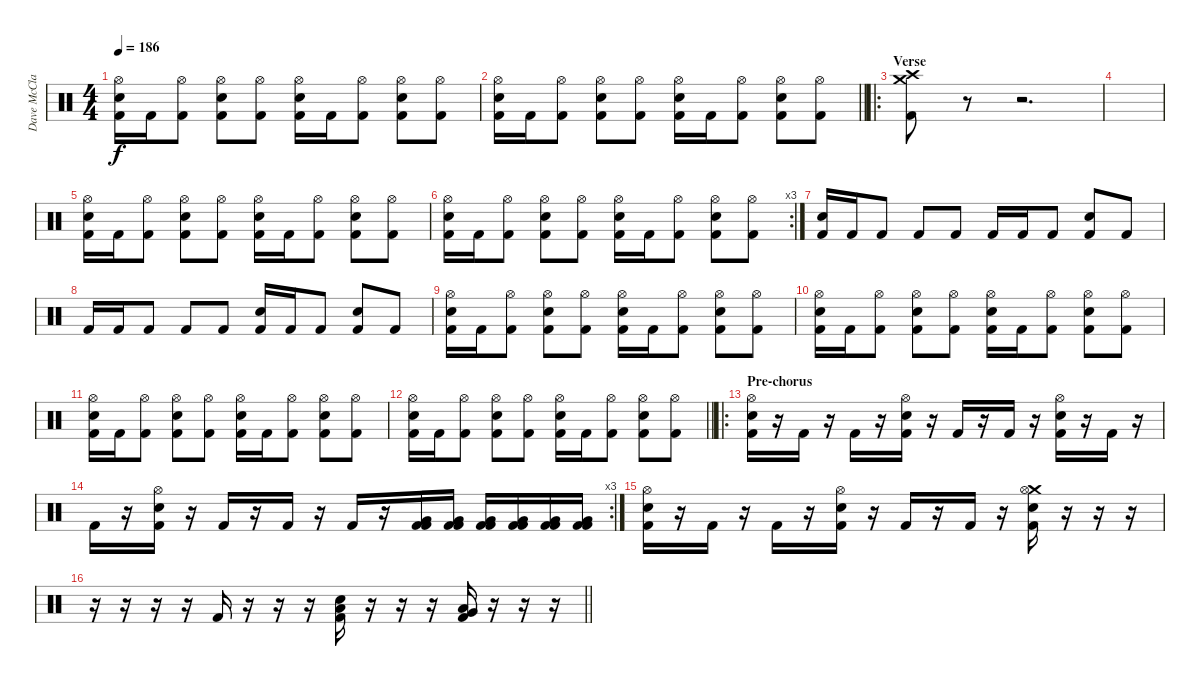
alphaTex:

\track ("Dave McClain" "Dave McCla") {instrument percussion}
\staff {score}
\articulation defaults
\ts (4 4)
\tempo 186
\clef neutral
\ks c
("Hi-Hat (open)" "Snare (hit) 2" "Kick (hit) 2").16{dy f} "Kick (hit) 2".16 ("Hi-Hat (open)" "Kick (hit) 2").8 ("Hi-Hat (open)" "Snare (hit) 2" "Kick (hit) 2").8 ("Hi-Hat (open)" "Kick (hit) 2").8 ("Hi-Hat (open)" "Snare (hit) 2" "Kick (hit) 2").16 "Kick (hit) 2".16 ("Hi-Hat (open)" "Kick (hit) 2").8 ("Hi-Hat (open)" "Snare (hit) 2" "Kick (hit) 2").8 ("Hi-Hat (open)" "Kick (hit) 2").8 |
\barLineRight lightlight
("Hi-Hat (open)" "Snare (hit) 2" "Kick (hit) 2").16 "Kick (hit) 2".16 ("Hi-Hat (open)" "Kick (hit) 2").8 ("Hi-Hat (open)" "Snare (hit) 2" "Kick (hit) 2").8 ("Hi-Hat (open)" "Kick (hit) 2").8 ("Hi-Hat (open)" "Snare (hit) 2" "Kick (hit) 2").16 "Kick (hit) 2".16 ("Hi-Hat (open)" "Kick (hit) 2").8 ("Hi-Hat (open)" "Snare (hit) 2" "Kick (hit) 2").8 ("Hi-Hat (open)" "Kick (hit) 2").8 |
\ro
\section ("" "Verse")
("Crash medium (hit)" "Crash high (hit)" "Kick (hit) 2").8 r.8 r.2{d} |
|
("Hi-Hat (open)" "Snare (hit) 2" "Kick (hit) 2").16 "Kick (hit) 2".16 ("Hi-Hat (open)" "Kick (hit) 2").8 ("Hi-Hat (open)" "Snare (hit) 2" "Kick (hit) 2").8 ("Hi-Hat (open)" "Kick (hit) 2").8 ("Hi-Hat (open)" "Snare (hit) 2" "Kick (hit) 2").16 "Kick (hit) 2".16 ("Hi-Hat (open)" "Kick (hit) 2").8 ("Hi-Hat (open)" "Snare (hit) 2" "Kick (hit) 2").8 ("Hi-Hat (open)" "Kick (hit) 2").8 |
\rc 3
("Hi-Hat (open)" "Snare (hit) 2" "Kick (hit) 2").16 "Kick (hit) 2".16 ("Hi-Hat (open)" "Kick (hit) 2").8 ("Hi-Hat (open)" "Snare (hit) 2" "Kick (hit) 2").8 ("Hi-Hat (open)" "Kick (hit) 2").8 ("Hi-Hat (open)" "Snare (hit) 2" "Kick (hit) 2").16 "Kick (hit) 2".16 ("Hi-Hat (open)" "Kick (hit) 2").8 ("Hi-Hat (open)" "Snare (hit) 2" "Kick (hit) 2").8 ("Hi-Hat (open)" "Kick (hit) 2").8 |
("Snare (hit) 2" "Kick (hit) 2").16 "Kick (hit) 2".16 "Kick (hit) 2".8 "Kick (hit) 2".8 "Kick (hit) 2".8 "Kick (hit) 2".16 "Kick (hit) 2".16 "Kick (hit) 2".8 ("Snare (hit) 2" "Kick (hit) 2").8 "Kick (hit) 2".8 |
"Kick (hit) 2".16 "Kick (hit) 2".16 "Kick (hit) 2".8 "Kick (hit) 2".8 "Kick (hit) 2".8 ("Snare (hit) 2" "Kick (hit) 2").16 "Kick (hit) 2".16 "Kick (hit) 2".8 ("Snare (hit) 2" "Kick (hit) 2").8 "Kick (hit) 2".8 |
("Hi-Hat (open)" "Snare (hit) 2" "Kick (hit) 2").16 "Kick (hit) 2".16 ("Hi-Hat (open)" "Kick (hit) 2").8 ("Hi-Hat (open)" "Snare (hit) 2" "Kick (hit) 2").8 ("Hi-Hat (open)" "Kick (hit) 2").8 ("Hi-Hat (open)" "Snare (hit) 2" "Kick (hit) 2").16 "Kick (hit) 2".16 ("Hi-Hat (open)" "Kick (hit) 2").8 ("Hi-Hat (open)" "Snare (hit) 2" "Kick (hit) 2").8 ("Hi-Hat (open)" "Kick (hit) 2").8 |
("Hi-Hat (open)" "Snare (hit) 2" "Kick (hit) 2").16 "Kick (hit) 2".16 ("Hi-Hat (open)" "Kick (hit) 2").8 ("Hi-Hat (open)" "Snare (hit) 2" "Kick (hit) 2").8 ("Hi-Hat (open)" "Kick (hit) 2").8 ("Hi-Hat (open)" "Snare (hit) 2" "Kick (hit) 2").16 "Kick (hit) 2".16 ("Hi-Hat (open)" "Kick (hit) 2").8 ("Hi-Hat (open)" "Snare (hit) 2" "Kick (hit) 2").8 ("Hi-Hat (open)" "Kick (hit) 2").8 |
("Hi-Hat (open)" "Snare (hit) 2" "Kick (hit) 2").16 "Kick (hit) 2".16 ("Hi-Hat (open)" "Kick (hit) 2").8 ("Hi-Hat (open)" "Snare (hit) 2" "Kick (hit) 2").8 ("Hi-Hat (open)" "Kick (hit) 2").8 ("Hi-Hat (open)" "Snare (hit) 2" "Kick (hit) 2").16 "Kick (hit) 2".16 ("Hi-Hat (open)" "Kick (hit) 2").8 ("Hi-Hat (open)" "Snare (hit) 2" "Kick (hit) 2").8 ("Hi-Hat (open)" "Kick (hit) 2").8 |
\barLineRight lightlight
("Hi-Hat (open)" "Snare (hit) 2" "Kick (hit) 2").16 "Kick (hit) 2".16 ("Hi-Hat (open)" "Kick (hit) 2").8 ("Hi-Hat (open)" "Snare (hit) 2" "Kick (hit) 2").8 ("Hi-Hat (open)" "Kick (hit) 2").8 ("Hi-Hat (open)" "Snare (hit) 2" "Kick (hit) 2").16 "Kick (hit) 2".16 ("Hi-Hat (open)" "Kick (hit) 2").8 ("Hi-Hat (open)" "Snare (hit) 2" "Kick (hit) 2").8 ("Hi-Hat (open)" "Kick (hit) 2").8 |
\ro
\section ("" "Pre-chorus")
("Hi-Hat (open)" "Snare (hit) 2" "Kick (hit) 2").16 r.16 "Kick (hit) 2".16 r.16 "Kick (hit) 2".16 r.16 ("Hi-Hat (open)" "Snare (hit) 2" "Kick (hit) 2").16 r.16 "Kick (hit) 2".16 r.16 "Kick (hit) 2".16 r.16 ("Hi-Hat (open)" "Snare (hit) 2" "Kick (hit) 2").16 r.16 "Kick (hit) 2".16 r.16 |
\rc 3 "Kick (hit) 2".16
r.16 ("Hi-Hat (open)" "Snare (hit) 2" "Kick (hit) 2").16 r.16 "Kick (hit) 2".16 r.16 "Kick (hit) 2".16 r.16 "Kick (hit) 2".16 r.16 ("Very Low Tom (hit)" "Kick (hit) 2" "Kick (hit) 2").16 ("Very Low Tom (hit)" "Kick (hit) 2" "Kick (hit) 2").16 ("Very Low Tom (hit)" "Kick (hit) 2" "Kick (hit) 2").16 ("Very Low Tom (hit)" "Kick (hit) 2" "Kick (hit) 2").16 ("Very Low Tom (hit)" "Kick (hit) 2" "Kick (hit) 2").16 ("Very Low Tom (hit)" "Kick (hit) 2" "Kick (hit) 2").16 |
("Hi-Hat (open)" "Snare (hit) 2" "Kick (hit) 2").16 r.16 "Kick (hit) 2".16 r.16 "Kick (hit) 2".16 r.16 ("Hi-Hat (open)" "Snare (hit) 2" "Kick (hit) 2").16 r.16 "Kick (hit) 2".16 r.16 "Kick (hit) 2".16 r.16 ("Crash medium (hit)" "Hi-Hat (open)" "Snare (hit) 2" "Kick (hit) 2").16 r.16 r.16 r.16 |
\barLineRight lightlight
r.16 r.16 r.16 r.16 "Kick (hit) 2".16 r.16 r.16 r.16 ("Low Tom (hit)" "Snare (hit) 2" "Kick (hit) 2").16 r.16 r.16 r.16 ("Very Low Tom (hit)" "Low Tom (hit)" "Kick (hit) 2").16 r.16 r.16 r.16
